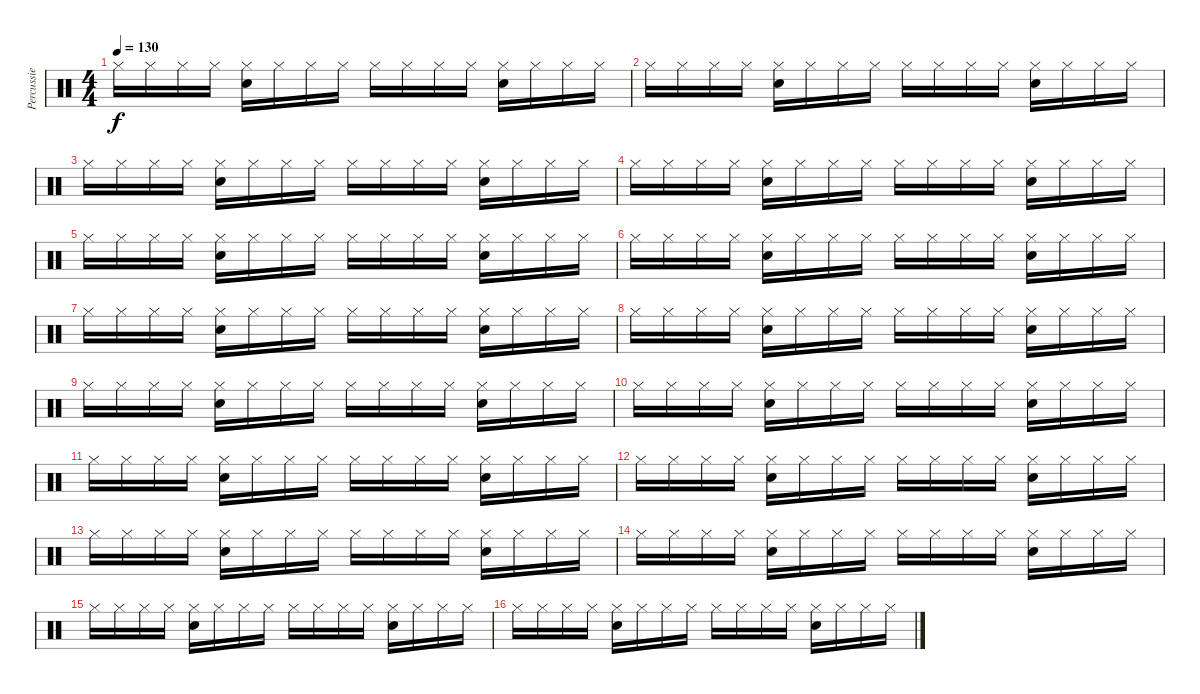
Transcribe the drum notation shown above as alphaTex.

\track ("Percussie" "Percussie") {instrument percussion}
\staff {score}
\articulation defaults
\ts (4 4)
\tempo 130
\clef neutral
\ks c "Hi-Hat (closed)".16{dy f} "Hi-Hat (closed)".16 "Hi-Hat (closed)".16 "Hi-Hat (closed)".16
("Hi-Hat (closed)" "Electric Snare (hit)").16 "Hi-Hat (closed)".16 "Hi-Hat (closed)".16 "Hi-Hat (closed)".16 "Hi-Hat (closed)".16 "Hi-Hat (closed)".16 "Hi-Hat (closed)".16 "Hi-Hat (closed)".16 ("Hi-Hat (closed)" "Electric Snare (hit)").16 "Hi-Hat (closed)".16 "Hi-Hat (closed)".16 "Hi-Hat (closed)".16 |
"Hi-Hat (closed)".16 "Hi-Hat (closed)".16 "Hi-Hat (closed)".16 "Hi-Hat (closed)".16 ("Hi-Hat (closed)" "Electric Snare (hit)").16 "Hi-Hat (closed)".16 "Hi-Hat (closed)".16 "Hi-Hat (closed)".16 "Hi-Hat (closed)".16 "Hi-Hat (closed)".16 "Hi-Hat (closed)".16 "Hi-Hat (closed)".16 ("Hi-Hat (closed)" "Electric Snare (hit)").16 "Hi-Hat (closed)".16 "Hi-Hat (closed)".16 "Hi-Hat (closed)".16 |
"Hi-Hat (closed)".16 "Hi-Hat (closed)".16 "Hi-Hat (closed)".16 "Hi-Hat (closed)".16 ("Hi-Hat (closed)" "Electric Snare (hit)").16 "Hi-Hat (closed)".16 "Hi-Hat (closed)".16 "Hi-Hat (closed)".16 "Hi-Hat (closed)".16 "Hi-Hat (closed)".16 "Hi-Hat (closed)".16 "Hi-Hat (closed)".16 ("Hi-Hat (closed)" "Electric Snare (hit)").16 "Hi-Hat (closed)".16 "Hi-Hat (closed)".16 "Hi-Hat (closed)".16 |
"Hi-Hat (closed)".16 "Hi-Hat (closed)".16 "Hi-Hat (closed)".16 "Hi-Hat (closed)".16 ("Hi-Hat (closed)" "Electric Snare (hit)").16 "Hi-Hat (closed)".16 "Hi-Hat (closed)".16 "Hi-Hat (closed)".16 "Hi-Hat (closed)".16 "Hi-Hat (closed)".16 "Hi-Hat (closed)".16 "Hi-Hat (closed)".16 ("Hi-Hat (closed)" "Electric Snare (hit)").16 "Hi-Hat (closed)".16 "Hi-Hat (closed)".16 "Hi-Hat (closed)".16 |
"Hi-Hat (closed)".16 "Hi-Hat (closed)".16 "Hi-Hat (closed)".16 "Hi-Hat (closed)".16 ("Hi-Hat (closed)" "Electric Snare (hit)").16 "Hi-Hat (closed)".16 "Hi-Hat (closed)".16 "Hi-Hat (closed)".16 "Hi-Hat (closed)".16 "Hi-Hat (closed)".16 "Hi-Hat (closed)".16 "Hi-Hat (closed)".16 ("Hi-Hat (closed)" "Electric Snare (hit)").16 "Hi-Hat (closed)".16 "Hi-Hat (closed)".16 "Hi-Hat (closed)".16 |
"Hi-Hat (closed)".16 "Hi-Hat (closed)".16 "Hi-Hat (closed)".16 "Hi-Hat (closed)".16 ("Hi-Hat (closed)" "Electric Snare (hit)").16 "Hi-Hat (closed)".16 "Hi-Hat (closed)".16 "Hi-Hat (closed)".16 "Hi-Hat (closed)".16 "Hi-Hat (closed)".16 "Hi-Hat (closed)".16 "Hi-Hat (closed)".16 ("Hi-Hat (closed)" "Electric Snare (hit)").16 "Hi-Hat (closed)".16 "Hi-Hat (closed)".16 "Hi-Hat (closed)".16 |
"Hi-Hat (closed)".16 "Hi-Hat (closed)".16 "Hi-Hat (closed)".16 "Hi-Hat (closed)".16 ("Hi-Hat (closed)" "Electric Snare (hit)").16 "Hi-Hat (closed)".16 "Hi-Hat (closed)".16 "Hi-Hat (closed)".16 "Hi-Hat (closed)".16 "Hi-Hat (closed)".16 "Hi-Hat (closed)".16 "Hi-Hat (closed)".16 ("Hi-Hat (closed)" "Electric Snare (hit)").16 "Hi-Hat (closed)".16 "Hi-Hat (closed)".16 "Hi-Hat (closed)".16 |
"Hi-Hat (closed)".16 "Hi-Hat (closed)".16 "Hi-Hat (closed)".16 "Hi-Hat (closed)".16 ("Hi-Hat (closed)" "Electric Snare (hit)").16 "Hi-Hat (closed)".16 "Hi-Hat (closed)".16 "Hi-Hat (closed)".16 "Hi-Hat (closed)".16 "Hi-Hat (closed)".16 "Hi-Hat (closed)".16 "Hi-Hat (closed)".16 ("Hi-Hat (closed)" "Electric Snare (hit)").16 "Hi-Hat (closed)".16 "Hi-Hat (closed)".16 "Hi-Hat (closed)".16 |
"Hi-Hat (closed)".16 "Hi-Hat (closed)".16 "Hi-Hat (closed)".16 "Hi-Hat (closed)".16 ("Hi-Hat (closed)" "Electric Snare (hit)").16 "Hi-Hat (closed)".16 "Hi-Hat (closed)".16 "Hi-Hat (closed)".16 "Hi-Hat (closed)".16 "Hi-Hat (closed)".16 "Hi-Hat (closed)".16 "Hi-Hat (closed)".16 ("Hi-Hat (closed)" "Electric Snare (hit)").16 "Hi-Hat (closed)".16 "Hi-Hat (closed)".16 "Hi-Hat (closed)".16 |
"Hi-Hat (closed)".16 "Hi-Hat (closed)".16 "Hi-Hat (closed)".16 "Hi-Hat (closed)".16 ("Hi-Hat (closed)" "Electric Snare (hit)").16 "Hi-Hat (closed)".16 "Hi-Hat (closed)".16 "Hi-Hat (closed)".16 "Hi-Hat (closed)".16 "Hi-Hat (closed)".16 "Hi-Hat (closed)".16 "Hi-Hat (closed)".16 ("Hi-Hat (closed)" "Electric Snare (hit)").16 "Hi-Hat (closed)".16 "Hi-Hat (closed)".16 "Hi-Hat (closed)".16 |
"Hi-Hat (closed)".16 "Hi-Hat (closed)".16 "Hi-Hat (closed)".16 "Hi-Hat (closed)".16 ("Hi-Hat (closed)" "Electric Snare (hit)").16 "Hi-Hat (closed)".16 "Hi-Hat (closed)".16 "Hi-Hat (closed)".16 "Hi-Hat (closed)".16 "Hi-Hat (closed)".16 "Hi-Hat (closed)".16 "Hi-Hat (closed)".16 ("Hi-Hat (closed)" "Electric Snare (hit)").16 "Hi-Hat (closed)".16 "Hi-Hat (closed)".16 "Hi-Hat (closed)".16 |
"Hi-Hat (closed)".16 "Hi-Hat (closed)".16 "Hi-Hat (closed)".16 "Hi-Hat (closed)".16 ("Hi-Hat (closed)" "Electric Snare (hit)").16 "Hi-Hat (closed)".16 "Hi-Hat (closed)".16 "Hi-Hat (closed)".16 "Hi-Hat (closed)".16 "Hi-Hat (closed)".16 "Hi-Hat (closed)".16 "Hi-Hat (closed)".16 ("Hi-Hat (closed)" "Electric Snare (hit)").16 "Hi-Hat (closed)".16 "Hi-Hat (closed)".16 "Hi-Hat (closed)".16 |
"Hi-Hat (closed)".16 "Hi-Hat (closed)".16 "Hi-Hat (closed)".16 "Hi-Hat (closed)".16 ("Hi-Hat (closed)" "Electric Snare (hit)").16 "Hi-Hat (closed)".16 "Hi-Hat (closed)".16 "Hi-Hat (closed)".16 "Hi-Hat (closed)".16 "Hi-Hat (closed)".16 "Hi-Hat (closed)".16 "Hi-Hat (closed)".16 ("Hi-Hat (closed)" "Electric Snare (hit)").16 "Hi-Hat (closed)".16 "Hi-Hat (closed)".16 "Hi-Hat (closed)".16 |
"Hi-Hat (closed)".16 "Hi-Hat (closed)".16 "Hi-Hat (closed)".16 "Hi-Hat (closed)".16 ("Hi-Hat (closed)" "Electric Snare (hit)").16 "Hi-Hat (closed)".16 "Hi-Hat (closed)".16 "Hi-Hat (closed)".16 "Hi-Hat (closed)".16 "Hi-Hat (closed)".16 "Hi-Hat (closed)".16 "Hi-Hat (closed)".16 ("Hi-Hat (closed)" "Electric Snare (hit)").16 "Hi-Hat (closed)".16 "Hi-Hat (closed)".16 "Hi-Hat (closed)".16 |
"Hi-Hat (closed)".16 "Hi-Hat (closed)".16 "Hi-Hat (closed)".16 "Hi-Hat (closed)".16 ("Hi-Hat (closed)" "Electric Snare (hit)").16 "Hi-Hat (closed)".16 "Hi-Hat (closed)".16 "Hi-Hat (closed)".16 "Hi-Hat (closed)".16 "Hi-Hat (closed)".16 "Hi-Hat (closed)".16 "Hi-Hat (closed)".16 ("Hi-Hat (closed)" "Electric Snare (hit)").16 "Hi-Hat (closed)".16 "Hi-Hat (closed)".16 "Hi-Hat (closed)".16 |
"Hi-Hat (closed)".16 "Hi-Hat (closed)".16 "Hi-Hat (closed)".16 "Hi-Hat (closed)".16 ("Hi-Hat (closed)" "Electric Snare (hit)").16 "Hi-Hat (closed)".16 "Hi-Hat (closed)".16 "Hi-Hat (closed)".16 "Hi-Hat (closed)".16 "Hi-Hat (closed)".16 "Hi-Hat (closed)".16 "Hi-Hat (closed)".16 ("Hi-Hat (closed)" "Electric Snare (hit)").16 "Hi-Hat (closed)".16 "Hi-Hat (closed)".16 "Hi-Hat (closed)".16
